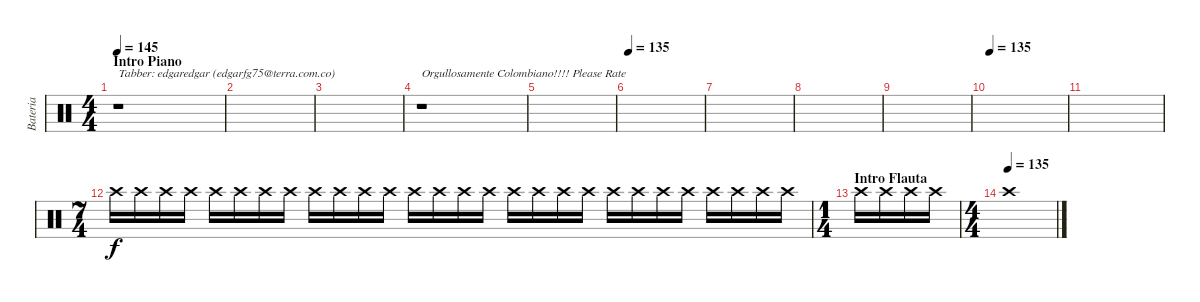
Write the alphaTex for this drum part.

\track ("Bateria" "Bateria") {instrument percussion}
\staff {score}
\articulation defaults
\ts (4 4)
\section ("" "Intro Piano")
\tempo 145
\tempo 100
\tempo 145
\clef neutral
\ks c
r.1{txt "Tabber: edgaredgar (edgarfg75@terra.com.co)" dy f} |
|
|
r.1{txt "Orgullosamente Colombiano!!!! Please Rate"} |
|
\tempo 135
|
|
|
|
\tempo 135
|
|
\ts (7 4)
"Crash high (hit)".16{volume 0} "Crash high (hit)".16{volume 13} "Crash high (hit)".16 "Crash high (hit)".16 "Crash high (hit)".16 "Crash high (hit)".16 "Crash high (hit)".16 "Crash high (hit)".16 "Crash high (hit)".16 "Crash high (hit)".16 "Crash high (hit)".16 "Crash high (hit)".16 "Crash high (hit)".16 "Crash high (hit)".16 "Crash high (hit)".16 "Crash high (hit)".16 "Crash high (hit)".16 "Crash high (hit)".16 "Crash high (hit)".16 "Crash high (hit)".16 "Crash high (hit)".16 "Crash high (hit)".16 "Crash high (hit)".16 "Crash high (hit)".16 "Crash high (hit)".16 "Crash high (hit)".16 "Crash high (hit)".16 "Crash high (hit)".16 |
\ts (1 4)
\section ("" "Intro Flauta")
"Crash high (hit)".16 "Crash high (hit)".16 "Crash high (hit)".16 "Crash high (hit)".16 |
\ts (4 4)
\tempo (135)
"Crash high (hit)".1
